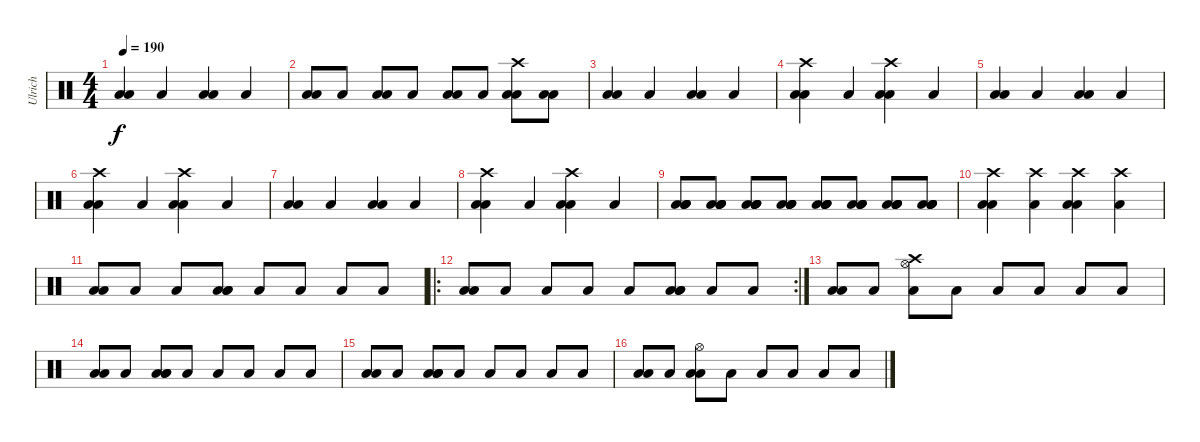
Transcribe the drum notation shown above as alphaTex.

\track ("Ulrich" "Ulrich") {instrument percussion}
\staff {score}
\articulation defaults
\ts (4 4)
\tempo 190
\clef neutral
\ks c
("Low Tom (hit)" "Low Tom (hit)").4{dy f} "Low Tom (hit)".4 ("Low Tom (hit)" "Low Tom (hit)").4 "Low Tom (hit)".4 |
("Low Tom (hit)" "Low Tom (hit)").8 "Low Tom (hit)".8 ("Low Tom (hit)" "Low Tom (hit)").8 "Low Tom (hit)".8 ("Low Tom (hit)" "Low Tom (hit)").8 "Low Tom (hit)".8 ("Low Tom (hit)" "Low Tom (hit)" "Crash high (hit)").8 ("Low Tom (hit)" "Low Tom (hit)").8 |
("Low Tom (hit)" "Low Tom (hit)").4 "Low Tom (hit)".4 ("Low Tom (hit)" "Low Tom (hit)").4 "Low Tom (hit)".4 |
("Low Tom (hit)" "Low Tom (hit)" "Crash high (hit)").4 "Low Tom (hit)".4 ("Low Tom (hit)" "Low Tom (hit)" "Crash high (hit)").4 "Low Tom (hit)".4 |
("Low Tom (hit)" "Low Tom (hit)").4 "Low Tom (hit)".4 ("Low Tom (hit)" "Low Tom (hit)").4 "Low Tom (hit)".4 |
("Low Tom (hit)" "Low Tom (hit)" "Crash high (hit)").4 "Low Tom (hit)".4 ("Low Tom (hit)" "Low Tom (hit)" "Crash high (hit)").4 "Low Tom (hit)".4 |
("Low Tom (hit)" "Low Tom (hit)").4 "Low Tom (hit)".4 ("Low Tom (hit)" "Low Tom (hit)").4 "Low Tom (hit)".4 |
("Low Tom (hit)" "Low Tom (hit)" "Crash high (hit)").4 "Low Tom (hit)".4 ("Low Tom (hit)" "Low Tom (hit)" "Crash high (hit)").4 "Low Tom (hit)".4 |
("Low Tom (hit)" "Low Tom (hit)" "Low Tom (hit)" "Low Tom (hit)").8 ("Low Tom (hit)" "Low Tom (hit)" "Low Tom (hit)" "Low Tom (hit)").8 ("Low Tom (hit)" "Low Tom (hit)" "Low Tom (hit)" "Low Tom (hit)").8 ("Low Tom (hit)" "Low Tom (hit)" "Low Tom (hit)" "Low Tom (hit)").8 ("Low Tom (hit)" "Low Tom (hit)" "Low Tom (hit)" "Low Tom (hit)").8 ("Low Tom (hit)" "Low Tom (hit)" "Low Tom (hit)" "Low Tom (hit)").8 ("Low Tom (hit)" "Low Tom (hit)" "Low Tom (hit)" "Low Tom (hit)").8 ("Low Tom (hit)" "Low Tom (hit)" "Low Tom (hit)" "Low Tom (hit)").8 |
("Low Tom (hit)" "Low Tom (hit)" "Crash high (hit)").4 ("Low Tom (hit)" "Crash high (hit)").4 ("Low Tom (hit)" "Low Tom (hit)" "Crash high (hit)").4 ("Low Tom (hit)" "Crash high (hit)").4 |
("Low Tom (hit)" "Low Tom (hit)").8 "Low Tom (hit)".8 "Low Tom (hit)".8 ("Low Tom (hit)" "Low Tom (hit)" "Low Tom (hit)").8 "Low Tom (hit)".8 "Low Tom (hit)".8 "Low Tom (hit)".8 "Low Tom (hit)".8 |
\ro
\rc 2
("Low Tom (hit)" "Low Tom (hit)").8 "Low Tom (hit)".8 "Low Tom (hit)".8 "Low Tom (hit)".8 "Low Tom (hit)".8 ("Low Tom (hit)" "Low Tom (hit)" "Low Tom (hit)").8 "Low Tom (hit)".8 "Low Tom (hit)".8 |
("Low Tom (hit)" "Low Tom (hit)").8 "Low Tom (hit)".8 ("Low Tom (hit)" "Hi-Hat (open)" "Crash high (hit)").8 "Low Tom (hit)".8 "Low Tom (hit)".8 "Low Tom (hit)".8 "Low Tom (hit)".8 "Low Tom (hit)".8 |
("Low Tom (hit)" "Low Tom (hit)").8 "Low Tom (hit)".8 ("Low Tom (hit)" "Low Tom (hit)" "Low Tom (hit)").8 "Low Tom (hit)".8 "Low Tom (hit)".8 "Low Tom (hit)".8 "Low Tom (hit)".8 "Low Tom (hit)".8 |
("Low Tom (hit)" "Low Tom (hit)").8 "Low Tom (hit)".8 ("Low Tom (hit)" "Low Tom (hit)" "Low Tom (hit)").8 "Low Tom (hit)".8 "Low Tom (hit)".8 "Low Tom (hit)".8 "Low Tom (hit)".8 "Low Tom (hit)".8 |
("Low Tom (hit)" "Low Tom (hit)").8 "Low Tom (hit)".8 ("Low Tom (hit)" "Low Tom (hit)" "Hi-Hat (open)").8 "Low Tom (hit)".8 "Low Tom (hit)".8 "Low Tom (hit)".8 "Low Tom (hit)".8 "Low Tom (hit)".8
